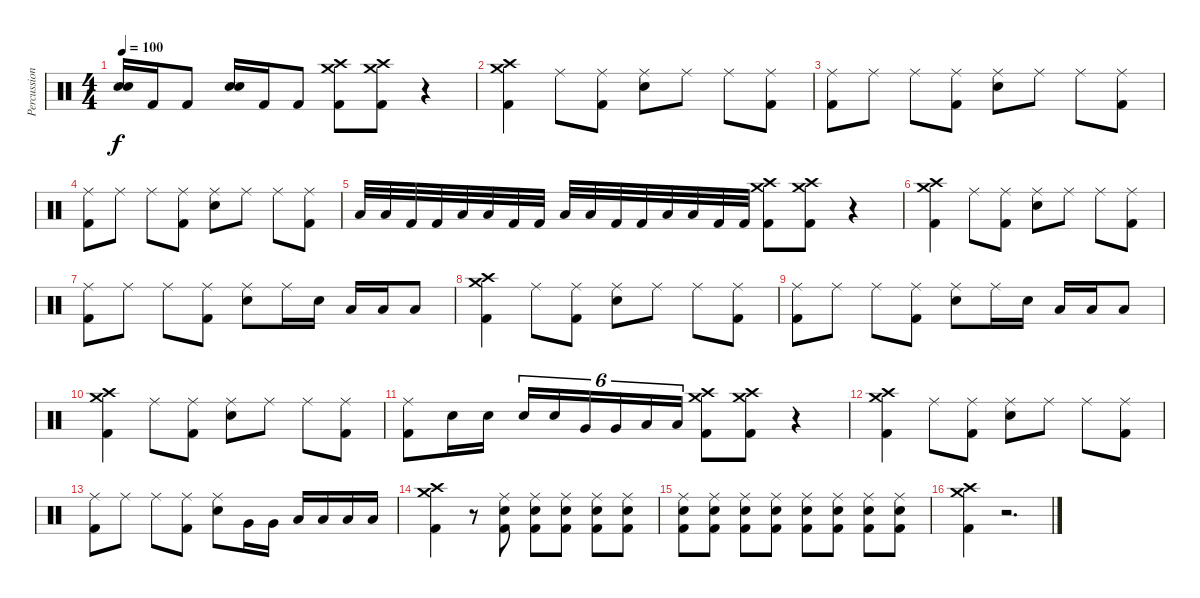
\track ("Percussion" "Percussion") {instrument percussion}
\staff {score}
\articulation defaults
\ts (4 4)
\tempo 100
\clef neutral
\ks c
("Snare (hit) 2" "Electric Snare (hit)").16{dy f} "Kick (hit) 2".16 "Kick (hit) 2".8 ("Snare (hit) 2" "Electric Snare (hit)").16 "Kick (hit) 2".16 "Kick (hit) 2".8 ("Kick (hit) 2" "Crash high (hit)" "Crash medium (hit)").8 ("Kick (hit) 2" "Crash high (hit)" "Crash medium (hit)").8 r.4 |
("Kick (hit) 2" "Crash high (hit)" "Crash medium (hit)").4 "Ride (middle)".8 ("Kick (hit) 2" "Ride (middle)").8 ("Snare (hit) 2" "Ride (middle)").8 "Ride (middle)".8 "Ride (middle)".8 ("Kick (hit) 2" "Ride (middle)").8 |
("Kick (hit) 2" "Ride (middle)").8 "Ride (middle)".8 "Ride (middle)".8 ("Kick (hit) 2" "Ride (middle)").8 ("Snare (hit) 2" "Ride (middle)").8 "Ride (middle)".8 "Ride (middle)".8 ("Kick (hit) 2" "Ride (middle)").8 |
("Kick (hit) 2" "Ride (middle)").8 "Ride (middle)".8 "Ride (middle)".8 ("Kick (hit) 2" "Ride (middle)").8 ("Snare (hit) 2" "Ride (middle)").8 "Ride (middle)".8 "Ride (middle)".8 ("Kick (hit) 2" "Ride (middle)").8 |
"Low Floor Tom (hit)".32 "Low Floor Tom (hit)".32 "Kick (hit) 2".32 "Kick (hit) 2".32 "Low Floor Tom (hit)".32 "Low Floor Tom (hit)".32 "Kick (hit) 2".32 "Kick (hit) 2".32 "Low Floor Tom (hit)".32 "Low Floor Tom (hit)".32 "Kick (hit) 2".32 "Kick (hit) 2".32 "Low Floor Tom (hit)".32 "Low Floor Tom (hit)".32 "Kick (hit) 2".32 "Kick (hit) 2".32 ("Kick (hit) 2" "Crash high (hit)" "Crash medium (hit)").8 ("Kick (hit) 2" "Crash high (hit)" "Crash medium (hit)").8 r.4 |
("Kick (hit) 2" "Crash high (hit)" "Crash medium (hit)").4 "Ride (middle)".8 ("Kick (hit) 2" "Ride (middle)").8 ("Snare (hit) 2" "Ride (middle)").8 "Ride (middle)".8 "Ride (middle)".8 ("Kick (hit) 2" "Ride (middle)").8 |
("Kick (hit) 2" "Ride (middle)").8 "Ride (middle)".8 "Ride (middle)".8 ("Kick (hit) 2" "Ride (middle)").8 ("Snare (hit) 2" "Ride (middle)").8 "Ride (middle)".16 "Snare (hit) 2".16 "Low Floor Tom (hit)".16 "Low Floor Tom (hit)".16 "Low Floor Tom (hit)".8 |
("Kick (hit) 2" "Crash high (hit)" "Crash medium (hit)").4 "Ride (middle)".8 ("Kick (hit) 2" "Ride (middle)").8 ("Snare (hit) 2" "Ride (middle)").8 "Ride (middle)".8 "Ride (middle)".8 ("Kick (hit) 2" "Ride (middle)").8 |
("Kick (hit) 2" "Ride (middle)").8 "Ride (middle)".8 "Ride (middle)".8 ("Kick (hit) 2" "Ride (middle)").8 ("Snare (hit) 2" "Ride (middle)").8 "Ride (middle)".16 "Snare (hit) 2".16 "Low Floor Tom (hit)".16 "Low Floor Tom (hit)".16 "Low Floor Tom (hit)".8 |
("Kick (hit) 2" "Crash high (hit)" "Crash medium (hit)").4 "Ride (middle)".8 ("Kick (hit) 2" "Ride (middle)").8 ("Snare (hit) 2" "Ride (middle)").8 "Ride (middle)".8 "Ride (middle)".8 ("Kick (hit) 2" "Ride (middle)").8 |
("Kick (hit) 2" "Ride (middle)").8 "Snare (hit) 2".16 "Snare (hit) 2".16 "Snare (hit) 2".16{tu (6 4)} "Snare (hit) 2".16{tu (6 4)} "Very Low Tom (hit)".16{tu (6 4)} "Very Low Tom (hit)".16{tu (6 4)} "Low Floor Tom (hit)".16{tu (6 4)} "Low Floor Tom (hit)".16{tu (6 4)} ("Kick (hit) 2" "Crash high (hit)" "Crash medium (hit)").8 ("Kick (hit) 2" "Crash high (hit)" "Crash medium (hit)").8 r.4 |
("Kick (hit) 2" "Crash high (hit)" "Crash medium (hit)").4 "Ride (middle)".8 ("Kick (hit) 2" "Ride (middle)").8 ("Snare (hit) 2" "Ride (middle)").8 "Ride (middle)".8 "Ride (middle)".8 ("Kick (hit) 2" "Ride (middle)").8 |
("Kick (hit) 2" "Ride (middle)").8 "Ride (middle)".8 "Ride (middle)".8 ("Kick (hit) 2" "Ride (middle)").8 ("Snare (hit) 2" "Ride (middle)").8 "Very Low Tom (hit)".16 "Very Low Tom (hit)".16 "Low Floor Tom (hit)".16 "Low Floor Tom (hit)".16 "Low Floor Tom (hit)".16 "Low Floor Tom (hit)".16 |
("Kick (hit) 2" "Crash high (hit)" "Crash medium (hit)").4 r.8 ("Snare (hit) 2" "Kick (hit) 2" "Ride (middle)").8 ("Snare (hit) 2" "Kick (hit) 2" "Ride (middle)").8 ("Snare (hit) 2" "Kick (hit) 2" "Ride (middle)").8 ("Snare (hit) 2" "Kick (hit) 2" "Ride (middle)").8 ("Snare (hit) 2" "Kick (hit) 2" "Ride (middle)").8 |
("Snare (hit) 2" "Kick (hit) 2" "Ride (middle)").8 ("Snare (hit) 2" "Kick (hit) 2" "Ride (middle)").8 ("Snare (hit) 2" "Kick (hit) 2" "Ride (middle)").8 ("Snare (hit) 2" "Kick (hit) 2" "Ride (middle)").8 ("Snare (hit) 2" "Kick (hit) 2" "Ride (middle)").8 ("Snare (hit) 2" "Kick (hit) 2" "Ride (middle)").8 ("Snare (hit) 2" "Kick (hit) 2" "Ride (middle)").8 ("Snare (hit) 2" "Kick (hit) 2" "Ride (middle)").8 |
("Kick (hit) 2" "Crash high (hit)" "Crash medium (hit)").4 r.2{d}
